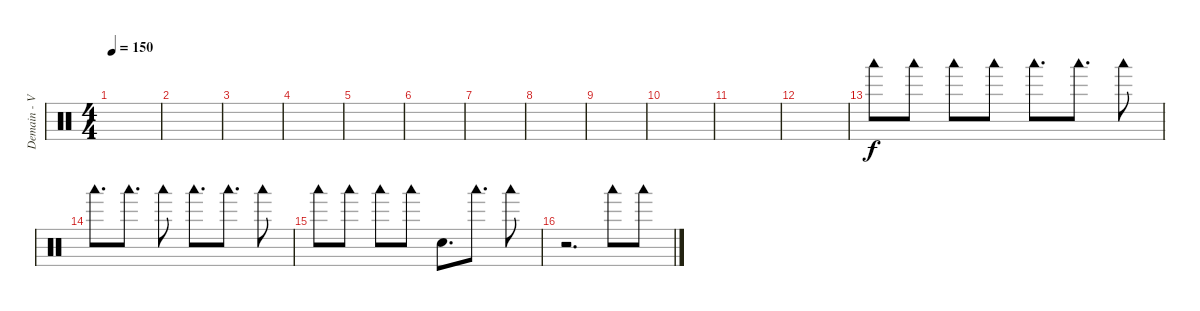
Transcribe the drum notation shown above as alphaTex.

\track ("Demain - Various Perc." "Demain - V") {instrument percussion}
\staff {score}
\articulation defaults
\ts (4 4)
\tempo 150
\clef neutral
\ks c
|
|
|
|
|
|
|
|
|
|
|
|
"Woodblock low (hit)".8 "Woodblock low (hit)".8 "Woodblock low (hit)".8 "Woodblock low (hit)".8 "Woodblock low (hit)".8{d} "Woodblock low (hit)".8{d} "Woodblock low (hit)".8 |
"Woodblock low (hit)".8{d} "Woodblock low (hit)".8{d} "Woodblock low (hit)".8 "Woodblock low (hit)".8{d} "Woodblock low (hit)".8{d} "Woodblock low (hit)".8 |
"Woodblock low (hit)".8 "Woodblock low (hit)".8 "Woodblock low (hit)".8 "Woodblock low (hit)".8 "Snare (hit)".8{d} "Woodblock low (hit)".8{d} "Woodblock low (hit)".8 |
r.2{d} "Woodblock low (hit)".8 "Woodblock low (hit)".8
